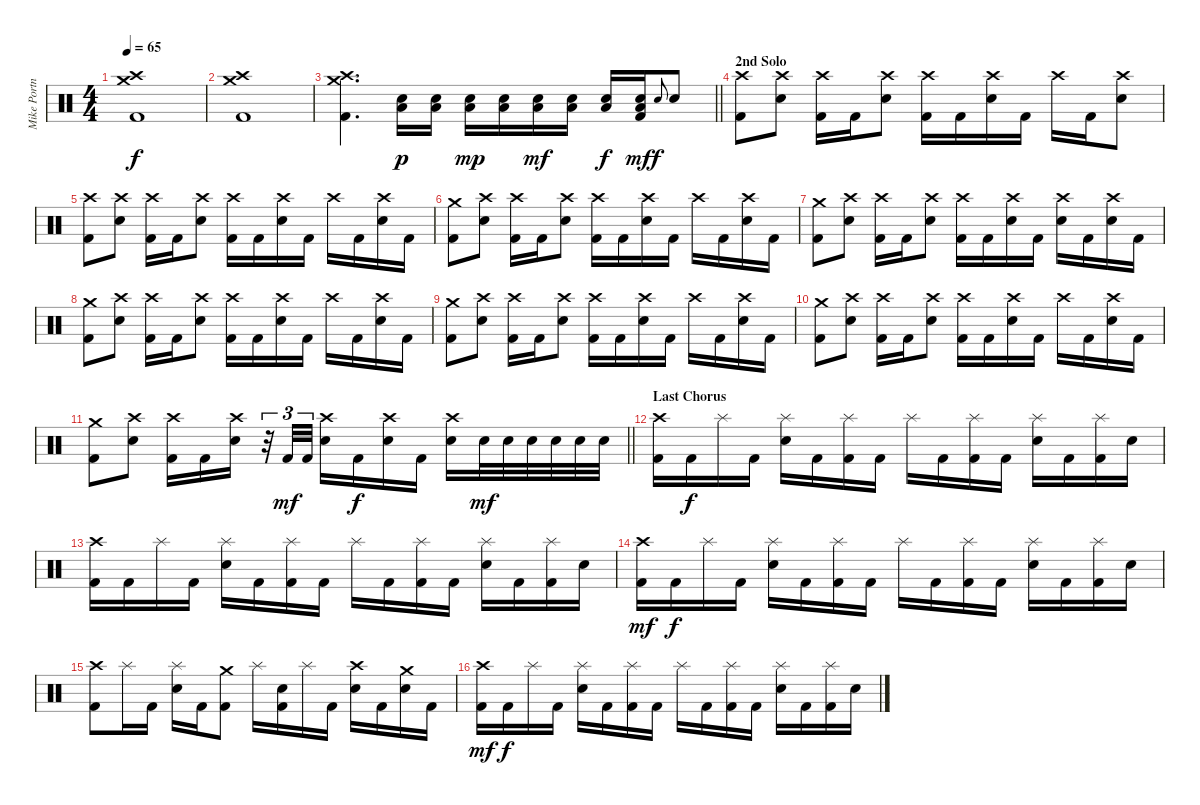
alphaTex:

\track ("Mike Portnoy [Drums]" "Mike Portn") {instrument percussion}
\staff {score}
\articulation defaults
\ts (4 4)
\tempo 65
\clef neutral
\ks c
("Crash high (hit)" "Crash medium (hit)" "Kick (hit) 2").1{dy f} |
("Crash high (hit)" "Crash medium (hit)" "Kick (hit) 2").1 |
\barLineRight lightlight
("Crash high (hit)" "Crash medium (hit)" "Kick (hit) 2").4{d} ("Low Floor Tom (hit)" "Electric Snare (hit)").16{dy p} ("Low Floor Tom (hit)" "Electric Snare (hit)").16 ("Low Floor Tom (hit)" "Electric Snare (hit)").16{dy mp} ("Low Floor Tom (hit)" "Electric Snare (hit)").16 ("Low Floor Tom (hit)" "Electric Snare (hit)").16{dy mf} ("Low Floor Tom (hit)" "Electric Snare (hit)").16 ("Low Floor Tom (hit)" "Electric Snare (hit)").16{dy f} ("Low Floor Tom (hit)" "Electric Snare (hit)" "Kick (hit) 2").16{dy mf} "Electric Snare (hit)".8{gr onbeat dy f} "Electric Snare (hit)".8 |
\section ("" "2nd Solo")
("Crash high (hit)" "Kick (hit) 2").8 ("Crash high (hit)" "Electric Snare (hit)").8 ("Crash high (hit)" "Kick (hit) 2").16 "Kick (hit) 2".16 ("Crash high (hit)" "Electric Snare (hit)").8 ("Crash high (hit)" "Kick (hit) 2").16 "Kick (hit) 2".16 ("Crash high (hit)" "Electric Snare (hit)").16 "Kick (hit) 2".16 "Crash high (hit)".16 "Kick (hit) 2".16 ("Crash high (hit)" "Electric Snare (hit)").8 |
("Crash high (hit)" "Kick (hit) 2").8 ("Crash high (hit)" "Electric Snare (hit)").8 ("Crash high (hit)" "Kick (hit) 2").16 "Kick (hit) 2".16 ("Crash high (hit)" "Electric Snare (hit)").8 ("Crash high (hit)" "Kick (hit) 2").16 "Kick (hit) 2".16 ("Crash high (hit)" "Electric Snare (hit)").16 "Kick (hit) 2".16 "Crash high (hit)".16 "Kick (hit) 2".16 ("Crash high (hit)" "Electric Snare (hit)").16 "Kick (hit) 2".16 |
("Crash medium (hit)" "Kick (hit) 2").8 ("Crash high (hit)" "Electric Snare (hit)").8 ("Crash high (hit)" "Kick (hit) 2").16 "Kick (hit) 2".16 ("Crash high (hit)" "Electric Snare (hit)").8 ("Crash high (hit)" "Kick (hit) 2").16 "Kick (hit) 2".16 ("Crash high (hit)" "Electric Snare (hit)").16 "Kick (hit) 2".16 "Crash high (hit)".16 "Kick (hit) 2".16 ("Crash high (hit)" "Electric Snare (hit)").16 "Kick (hit) 2".16 |
("Crash medium (hit)" "Kick (hit) 2").8 ("Crash high (hit)" "Electric Snare (hit)").8 ("Crash high (hit)" "Kick (hit) 2").16 "Kick (hit) 2".16 ("Crash high (hit)" "Electric Snare (hit)").8 ("Crash high (hit)" "Kick (hit) 2").16 "Kick (hit) 2".16 ("Crash high (hit)" "Electric Snare (hit)").16 "Kick (hit) 2".16 ("Crash high (hit)" "Electric Snare (hit)").16 "Kick (hit) 2".16 ("Crash high (hit)" "Electric Snare (hit)").16 "Kick (hit) 2".16 |
("Crash medium (hit)" "Kick (hit) 2").8 ("Crash high (hit)" "Electric Snare (hit)").8 ("Crash high (hit)" "Kick (hit) 2").16 "Kick (hit) 2".16 ("Crash high (hit)" "Electric Snare (hit)").8 ("Crash high (hit)" "Kick (hit) 2").16 "Kick (hit) 2".16 ("Crash high (hit)" "Electric Snare (hit)").16 "Kick (hit) 2".16 "Crash high (hit)".16 "Kick (hit) 2".16 ("Crash high (hit)" "Electric Snare (hit)").16 "Kick (hit) 2".16 |
("Crash medium (hit)" "Kick (hit) 2").8 ("Crash high (hit)" "Electric Snare (hit)").8 ("Crash high (hit)" "Kick (hit) 2").16 "Kick (hit) 2".16 ("Crash high (hit)" "Electric Snare (hit)").8 ("Crash high (hit)" "Kick (hit) 2").16 "Kick (hit) 2".16 ("Crash high (hit)" "Electric Snare (hit)").16 "Kick (hit) 2".16 "Crash high (hit)".16 "Kick (hit) 2".16 ("Crash high (hit)" "Electric Snare (hit)").16 "Kick (hit) 2".16 |
("Crash medium (hit)" "Kick (hit) 2").8 ("Crash high (hit)" "Electric Snare (hit)").8 ("Crash high (hit)" "Kick (hit) 2").16 "Kick (hit) 2".16 ("Crash high (hit)" "Electric Snare (hit)").8 ("Crash high (hit)" "Kick (hit) 2").16 "Kick (hit) 2".16 ("Crash high (hit)" "Electric Snare (hit)").16 "Kick (hit) 2".16 "Crash high (hit)".16 "Kick (hit) 2".16 ("Crash high (hit)" "Electric Snare (hit)").16 "Kick (hit) 2".16 |
\barLineRight lightlight
("Crash medium (hit)" "Kick (hit) 2").8 ("Crash high (hit)" "Electric Snare (hit)").8 ("Crash high (hit)" "Kick (hit) 2").16 "Kick (hit) 2".16 ("Crash high (hit)" "Electric Snare (hit)").16 r.32{tu (3 2)} "Kick (hit) 2".32{tu (3 2) dy mf} "Kick (hit) 2".32{tu (3 2)} ("Crash high (hit)" "Electric Snare (hit)").16 "Kick (hit) 2".16{dy f} ("Crash high (hit)" "Electric Snare (hit)").16 "Kick (hit) 2".16 ("Crash high (hit)" "Electric Snare (hit)").16 "Electric Snare (hit)".32{dy mf} "Electric Snare (hit)".32 "Electric Snare (hit)".32 "Electric Snare (hit)".32 "Electric Snare (hit)".32 "Electric Snare (hit)".32 |
\section ("" "Last Chorus")
("Crash high (hit)" "Kick (hit) 2").16 "Kick (hit) 2".16{dy f} "Splash (hit)".16 "Kick (hit) 2".16 ("Splash (hit)" "Electric Snare (hit)").16 "Kick (hit) 2".16 ("Splash (hit)" "Kick (hit) 2").16 "Kick (hit) 2".16 "Splash (hit)".16 "Kick (hit) 2".16 ("Splash (hit)" "Kick (hit) 2").16 "Kick (hit) 2".16 ("Splash (hit)" "Electric Snare (hit)").16 "Kick (hit) 2".16 ("Splash (hit)" "Kick (hit) 2").16 "Electric Snare (hit)".16 |
("Crash high (hit)" "Kick (hit) 2").16 "Kick (hit) 2".16 "Splash (hit)".16 "Kick (hit) 2".16 ("Splash (hit)" "Electric Snare (hit)").16 "Kick (hit) 2".16 ("Splash (hit)" "Kick (hit) 2").16 "Kick (hit) 2".16 "Splash (hit)".16 "Kick (hit) 2".16 ("Splash (hit)" "Kick (hit) 2").16 "Kick (hit) 2".16 ("Splash (hit)" "Electric Snare (hit)").16 "Kick (hit) 2".16 ("Splash (hit)" "Kick (hit) 2").16 "Electric Snare (hit)".16 |
("Crash high (hit)" "Kick (hit) 2").16{dy mf} "Kick (hit) 2".16{dy f} "Splash (hit)".16 "Kick (hit) 2".16 ("Splash (hit)" "Electric Snare (hit)").16 "Kick (hit) 2".16 ("Splash (hit)" "Kick (hit) 2").16 "Kick (hit) 2".16 "Splash (hit)".16 "Kick (hit) 2".16 ("Splash (hit)" "Kick (hit) 2").16 "Kick (hit) 2".16 ("Splash (hit)" "Electric Snare (hit)").16 "Kick (hit) 2".16 ("Splash (hit)" "Kick (hit) 2").16 "Electric Snare (hit)".16 |
("Crash high (hit)" "Kick (hit) 2").8 "Splash (hit)".16 "Kick (hit) 2".16 ("Splash (hit)" "Electric Snare (hit)").16 "Kick (hit) 2".16 ("Crash medium (hit)" "Kick (hit) 2").8 "Splash (hit)".16 ("Electric Snare (hit)" "Kick (hit) 2").16 "Splash (hit)".16 "Kick (hit) 2".16 ("Crash high (hit)" "Electric Snare (hit)").16 "Kick (hit) 2".16 ("Crash medium (hit)" "Electric Snare (hit)").16 "Kick (hit) 2".16 |
("Crash high (hit)" "Kick (hit) 2").16{dy mf} "Kick (hit) 2".16{dy f} "Splash (hit)".16 "Kick (hit) 2".16 ("Splash (hit)" "Electric Snare (hit)").16 "Kick (hit) 2".16 ("Splash (hit)" "Kick (hit) 2").16 "Kick (hit) 2".16 "Splash (hit)".16 "Kick (hit) 2".16 ("Splash (hit)" "Kick (hit) 2").16 "Kick (hit) 2".16 ("Splash (hit)" "Electric Snare (hit)").16 "Kick (hit) 2".16 ("Splash (hit)" "Kick (hit) 2").16 "Electric Snare (hit)".16
